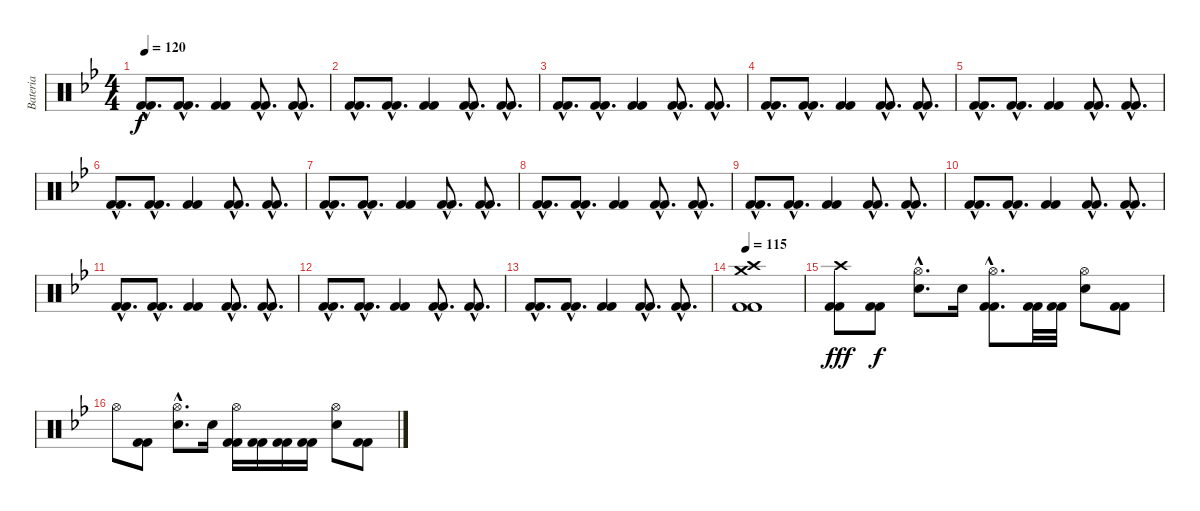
\track ("Bateria" "Bateria") {instrument percussion}
\staff {score}
\articulation defaults
\ts (4 4)
\tempo 120
\clef neutral
\ks bb
("Kick (hit) 2"{hac} "Kick (hit) 2"{hac}).8{d dy f} ("Kick (hit) 2"{hac} "Kick (hit) 2"{hac}).8{d} ("Kick (hit) 2" "Kick (hit) 2").4 ("Kick (hit) 2"{hac} "Kick (hit) 2"{hac}).8{d} ("Kick (hit) 2"{hac} "Kick (hit) 2"{hac}).8{d} |
("Kick (hit) 2"{hac} "Kick (hit) 2"{hac}).8{d} ("Kick (hit) 2"{hac} "Kick (hit) 2"{hac}).8{d} ("Kick (hit) 2" "Kick (hit) 2").4 ("Kick (hit) 2"{hac} "Kick (hit) 2"{hac}).8{d} ("Kick (hit) 2"{hac} "Kick (hit) 2"{hac}).8{d} |
("Kick (hit) 2"{hac} "Kick (hit) 2"{hac}).8{d} ("Kick (hit) 2"{hac} "Kick (hit) 2"{hac}).8{d} ("Kick (hit) 2" "Kick (hit) 2").4 ("Kick (hit) 2"{hac} "Kick (hit) 2"{hac}).8{d} ("Kick (hit) 2"{hac} "Kick (hit) 2"{hac}).8{d} |
("Kick (hit) 2"{hac} "Kick (hit) 2"{hac}).8{d} ("Kick (hit) 2"{hac} "Kick (hit) 2"{hac}).8{d} ("Kick (hit) 2" "Kick (hit) 2").4 ("Kick (hit) 2"{hac} "Kick (hit) 2"{hac}).8{d} ("Kick (hit) 2"{hac} "Kick (hit) 2"{hac}).8{d} |
("Kick (hit) 2"{hac} "Kick (hit) 2"{hac}).8{d} ("Kick (hit) 2"{hac} "Kick (hit) 2"{hac}).8{d} ("Kick (hit) 2" "Kick (hit) 2").4 ("Kick (hit) 2"{hac} "Kick (hit) 2"{hac}).8{d} ("Kick (hit) 2"{hac} "Kick (hit) 2"{hac}).8{d} |
("Kick (hit) 2"{hac} "Kick (hit) 2"{hac}).8{d} ("Kick (hit) 2"{hac} "Kick (hit) 2"{hac}).8{d} ("Kick (hit) 2" "Kick (hit) 2").4 ("Kick (hit) 2"{hac} "Kick (hit) 2"{hac}).8{d} ("Kick (hit) 2"{hac} "Kick (hit) 2"{hac}).8{d} |
("Kick (hit) 2"{hac} "Kick (hit) 2"{hac}).8{d} ("Kick (hit) 2"{hac} "Kick (hit) 2"{hac}).8{d} ("Kick (hit) 2" "Kick (hit) 2").4 ("Kick (hit) 2"{hac} "Kick (hit) 2"{hac}).8{d} ("Kick (hit) 2"{hac} "Kick (hit) 2"{hac}).8{d} |
("Kick (hit) 2"{hac} "Kick (hit) 2"{hac}).8{d} ("Kick (hit) 2"{hac} "Kick (hit) 2"{hac}).8{d} ("Kick (hit) 2" "Kick (hit) 2").4 ("Kick (hit) 2"{hac} "Kick (hit) 2"{hac}).8{d} ("Kick (hit) 2"{hac} "Kick (hit) 2"{hac}).8{d} |
("Kick (hit) 2"{hac} "Kick (hit) 2"{hac}).8{d} ("Kick (hit) 2"{hac} "Kick (hit) 2"{hac}).8{d} ("Kick (hit) 2" "Kick (hit) 2").4 ("Kick (hit) 2"{hac} "Kick (hit) 2"{hac}).8{d} ("Kick (hit) 2"{hac} "Kick (hit) 2"{hac}).8{d} |
("Kick (hit) 2"{hac} "Kick (hit) 2"{hac}).8{d} ("Kick (hit) 2"{hac} "Kick (hit) 2"{hac}).8{d} ("Kick (hit) 2" "Kick (hit) 2").4 ("Kick (hit) 2"{hac} "Kick (hit) 2"{hac}).8{d} ("Kick (hit) 2"{hac} "Kick (hit) 2"{hac}).8{d} |
("Kick (hit) 2"{hac} "Kick (hit) 2"{hac}).8{d} ("Kick (hit) 2"{hac} "Kick (hit) 2"{hac}).8{d} ("Kick (hit) 2" "Kick (hit) 2").4 ("Kick (hit) 2"{hac} "Kick (hit) 2"{hac}).8{d} ("Kick (hit) 2"{hac} "Kick (hit) 2"{hac}).8{d} |
("Kick (hit) 2"{hac} "Kick (hit) 2"{hac}).8{d} ("Kick (hit) 2"{hac} "Kick (hit) 2"{hac}).8{d} ("Kick (hit) 2" "Kick (hit) 2").4 ("Kick (hit) 2"{hac} "Kick (hit) 2"{hac}).8{d} ("Kick (hit) 2"{hac} "Kick (hit) 2"{hac}).8{d} |
("Kick (hit) 2"{hac} "Kick (hit) 2"{hac}).8{d} ("Kick (hit) 2"{hac} "Kick (hit) 2"{hac}).8{d} ("Kick (hit) 2" "Kick (hit) 2").4 ("Kick (hit) 2"{hac} "Kick (hit) 2"{hac}).8{d} ("Kick (hit) 2"{hac} "Kick (hit) 2"{hac}).8{d} |
\tempo 115
("Crash high (hit)" "Crash medium (hit)" "Kick (hit) 2" "Kick (hit) 2").1 |
("Crash high (hit)" "Kick (hit) 2" "Kick (hit) 2").8{dy fff} ("Kick (hit) 2" "Kick (hit) 2").8{dy f} ("Hi-Hat (open)"{hac} "Electric Snare (hit)"{hac}).8{d} "Electric Snare (hit)".16 ("Hi-Hat (open)"{hac} "Kick (hit) 2"{hac} "Kick (hit) 2"{hac}).8{d} ("Kick (hit) 2" "Kick (hit) 2").32 ("Kick (hit) 2" "Kick (hit) 2").32 ("Hi-Hat (open)" "Electric Snare (hit)").8 ("Kick (hit) 2" "Kick (hit) 2").8 |
"Hi-Hat (open)".8 ("Kick (hit) 2" "Kick (hit) 2").8 ("Hi-Hat (open)"{hac} "Electric Snare (hit)"{hac}).8{d} "Electric Snare (hit)".16 ("Hi-Hat (open)" "Kick (hit) 2" "Kick (hit) 2").16 ("Kick (hit) 2" "Kick (hit) 2").16 ("Kick (hit) 2" "Kick (hit) 2").16 ("Kick (hit) 2" "Kick (hit) 2").16 ("Hi-Hat (open)" "Electric Snare (hit)").8 ("Kick (hit) 2" "Kick (hit) 2").8
